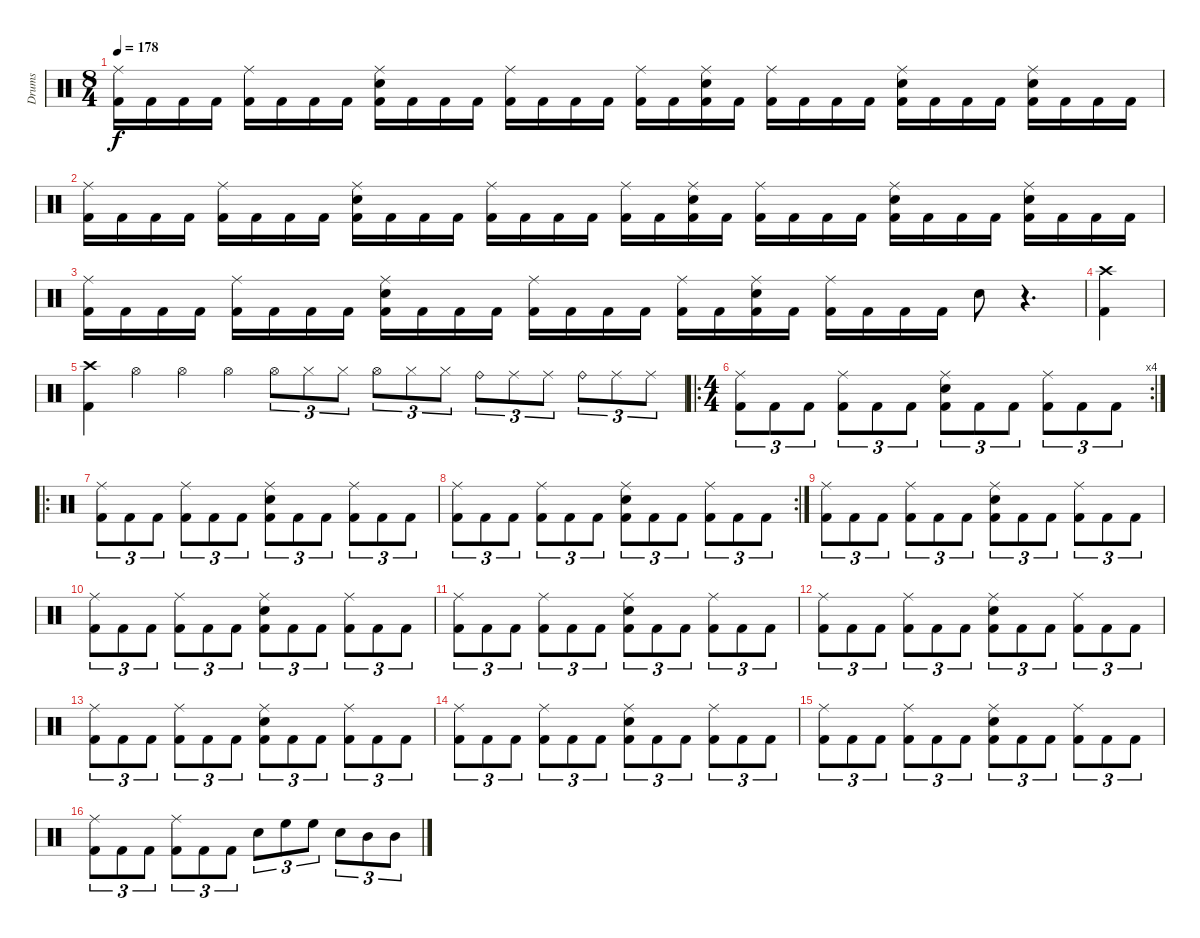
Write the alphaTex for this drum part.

\track ("Drums" "Drums") {instrument percussion}
\staff {score}
\articulation defaults
\ts (8 4)
\tempo 178
\clef neutral
\ks c
("Ride (middle)" "Kick (hit) 2").16{dy f} "Kick (hit) 2".16 "Kick (hit) 2".16 "Kick (hit) 2".16 ("Ride (middle)" "Kick (hit) 2").16 "Kick (hit) 2".16 "Kick (hit) 2".16 "Kick (hit) 2".16 ("Ride (middle)" "Snare (hit) 2" "Kick (hit) 2").16 "Kick (hit) 2".16 "Kick (hit) 2".16 "Kick (hit) 2".16 ("Ride (middle)" "Kick (hit) 2").16 "Kick (hit) 2".16 "Kick (hit) 2".16 "Kick (hit) 2".16 ("Ride (middle)" "Kick (hit) 2").16 "Kick (hit) 2".16 ("Ride (middle)" "Snare (hit) 2" "Kick (hit) 2").16 "Kick (hit) 2".16 ("Ride (middle)" "Kick (hit) 2").16 "Kick (hit) 2".16 "Kick (hit) 2".16 "Kick (hit) 2".16 ("Ride (middle)" "Snare (hit) 2" "Kick (hit) 2").16 "Kick (hit) 2".16 "Kick (hit) 2".16 "Kick (hit) 2".16 ("Ride (middle)" "Snare (hit) 2" "Kick (hit) 2").16 "Kick (hit) 2".16 "Kick (hit) 2".16 "Kick (hit) 2".16 |
("Ride (middle)" "Kick (hit) 2").16 "Kick (hit) 2".16 "Kick (hit) 2".16 "Kick (hit) 2".16 ("Ride (middle)" "Kick (hit) 2").16 "Kick (hit) 2".16 "Kick (hit) 2".16 "Kick (hit) 2".16 ("Ride (middle)" "Snare (hit) 2" "Kick (hit) 2").16 "Kick (hit) 2".16 "Kick (hit) 2".16 "Kick (hit) 2".16 ("Ride (middle)" "Kick (hit) 2").16 "Kick (hit) 2".16 "Kick (hit) 2".16 "Kick (hit) 2".16 ("Ride (middle)" "Kick (hit) 2").16 "Kick (hit) 2".16 ("Ride (middle)" "Snare (hit) 2" "Kick (hit) 2").16 "Kick (hit) 2".16 ("Ride (middle)" "Kick (hit) 2").16 "Kick (hit) 2".16 "Kick (hit) 2".16 "Kick (hit) 2".16 ("Ride (middle)" "Snare (hit) 2" "Kick (hit) 2").16 "Kick (hit) 2".16 "Kick (hit) 2".16 "Kick (hit) 2".16 ("Ride (middle)" "Snare (hit) 2" "Kick (hit) 2").16 "Kick (hit) 2".16 "Kick (hit) 2".16 "Kick (hit) 2".16 |
("Ride (middle)" "Kick (hit) 2").16 "Kick (hit) 2".16 "Kick (hit) 2".16 "Kick (hit) 2".16 ("Ride (middle)" "Kick (hit) 2").16 "Kick (hit) 2".16 "Kick (hit) 2".16 "Kick (hit) 2".16 ("Ride (middle)" "Snare (hit) 2" "Kick (hit) 2").16 "Kick (hit) 2".16 "Kick (hit) 2".16 "Kick (hit) 2".16 ("Ride (middle)" "Kick (hit) 2").16 "Kick (hit) 2".16 "Kick (hit) 2".16 "Kick (hit) 2".16 ("Ride (middle)" "Kick (hit) 2").16 "Kick (hit) 2".16 ("Ride (middle)" "Snare (hit) 2" "Kick (hit) 2").16 "Kick (hit) 2".16 ("Ride (middle)" "Kick (hit) 2").16 "Kick (hit) 2".16 "Kick (hit) 2".16 "Kick (hit) 2".16 "Snare (hit) 2".8 r.4{d} |
("Crash high (hit)" "Kick (hit) 2").4 |
("Crash high (hit)" "Kick (hit) 2").4 "Hi-Hat (open)".4 "Hi-Hat (open)".4 "Hi-Hat (open)".4 "Hi-Hat (open)".8{tu (3 2)} "Hi-Hat (closed)".8{tu (3 2)} "Hi-Hat (closed)".8{tu (3 2)} "Hi-Hat (open)".8{tu (3 2)} "Hi-Hat (closed)".8{tu (3 2)} "Hi-Hat (closed)".8{tu (3 2)} "Ride (bell)".8{tu (3 2)} "Ride (middle)".8{tu (3 2)} "Ride (middle)".8{tu (3 2)} "Ride (bell)".8{tu (3 2)} "Ride (middle)".8{tu (3 2)} "Ride (middle)".8{tu (3 2)} |
\ro
\rc 4
\ts (4 4)
("Ride (middle)" "Kick (hit) 2").8{tu (3 2)} "Kick (hit) 2".8{tu (3 2)} "Kick (hit) 2".8{tu (3 2)} ("Ride (middle)" "Kick (hit) 2").8{tu (3 2)} "Kick (hit) 2".8{tu (3 2)} "Kick (hit) 2".8{tu (3 2)} ("Ride (middle)" "Snare (hit) 2" "Kick (hit) 2").8{tu (3 2)} "Kick (hit) 2".8{tu (3 2)} "Kick (hit) 2".8{tu (3 2)} ("Ride (middle)" "Kick (hit) 2").8{tu (3 2)} "Kick (hit) 2".8{tu (3 2)} "Kick (hit) 2".8{tu (3 2)} |
\ro
("Ride (middle)" "Kick (hit) 2").8{tu (3 2)} "Kick (hit) 2".8{tu (3 2)} "Kick (hit) 2".8{tu (3 2)} ("Ride (middle)" "Kick (hit) 2").8{tu (3 2)} "Kick (hit) 2".8{tu (3 2)} "Kick (hit) 2".8{tu (3 2)} ("Ride (middle)" "Snare (hit) 2" "Kick (hit) 2").8{tu (3 2)} "Kick (hit) 2".8{tu (3 2)} "Kick (hit) 2".8{tu (3 2)} ("Ride (middle)" "Kick (hit) 2").8{tu (3 2)} "Kick (hit) 2".8{tu (3 2)} "Kick (hit) 2".8{tu (3 2)} |
\rc 2
("Ride (middle)" "Kick (hit) 2").8{tu (3 2)} "Kick (hit) 2".8{tu (3 2)} "Kick (hit) 2".8{tu (3 2)} ("Ride (middle)" "Kick (hit) 2").8{tu (3 2)} "Kick (hit) 2".8{tu (3 2)} "Kick (hit) 2".8{tu (3 2)} ("Ride (middle)" "Snare (hit) 2" "Kick (hit) 2").8{tu (3 2)} "Kick (hit) 2".8{tu (3 2)} "Kick (hit) 2".8{tu (3 2)} ("Ride (middle)" "Kick (hit) 2").8{tu (3 2)} "Kick (hit) 2".8{tu (3 2)} "Kick (hit) 2".8{tu (3 2)} |
("Ride (middle)" "Kick (hit) 2").8{tu (3 2)} "Kick (hit) 2".8{tu (3 2)} "Kick (hit) 2".8{tu (3 2)} ("Ride (middle)" "Kick (hit) 2").8{tu (3 2)} "Kick (hit) 2".8{tu (3 2)} "Kick (hit) 2".8{tu (3 2)} ("Ride (middle)" "Snare (hit) 2" "Kick (hit) 2").8{tu (3 2)} "Kick (hit) 2".8{tu (3 2)} "Kick (hit) 2".8{tu (3 2)} ("Ride (middle)" "Kick (hit) 2").8{tu (3 2)} "Kick (hit) 2".8{tu (3 2)} "Kick (hit) 2".8{tu (3 2)} |
("Ride (middle)" "Kick (hit) 2").8{tu (3 2)} "Kick (hit) 2".8{tu (3 2)} "Kick (hit) 2".8{tu (3 2)} ("Ride (middle)" "Kick (hit) 2").8{tu (3 2)} "Kick (hit) 2".8{tu (3 2)} "Kick (hit) 2".8{tu (3 2)} ("Ride (middle)" "Snare (hit) 2" "Kick (hit) 2").8{tu (3 2)} "Kick (hit) 2".8{tu (3 2)} "Kick (hit) 2".8{tu (3 2)} ("Ride (middle)" "Kick (hit) 2").8{tu (3 2)} "Kick (hit) 2".8{tu (3 2)} "Kick (hit) 2".8{tu (3 2)} |
("Ride (middle)" "Kick (hit) 2").8{tu (3 2)} "Kick (hit) 2".8{tu (3 2)} "Kick (hit) 2".8{tu (3 2)} ("Ride (middle)" "Kick (hit) 2").8{tu (3 2)} "Kick (hit) 2".8{tu (3 2)} "Kick (hit) 2".8{tu (3 2)} ("Ride (middle)" "Snare (hit) 2" "Kick (hit) 2").8{tu (3 2)} "Kick (hit) 2".8{tu (3 2)} "Kick (hit) 2".8{tu (3 2)} ("Ride (middle)" "Kick (hit) 2").8{tu (3 2)} "Kick (hit) 2".8{tu (3 2)} "Kick (hit) 2".8{tu (3 2)} |
("Ride (middle)" "Kick (hit) 2").8{tu (3 2)} "Kick (hit) 2".8{tu (3 2)} "Kick (hit) 2".8{tu (3 2)} ("Ride (middle)" "Kick (hit) 2").8{tu (3 2)} "Kick (hit) 2".8{tu (3 2)} "Kick (hit) 2".8{tu (3 2)} ("Ride (middle)" "Snare (hit) 2" "Kick (hit) 2").8{tu (3 2)} "Kick (hit) 2".8{tu (3 2)} "Kick (hit) 2".8{tu (3 2)} ("Ride (middle)" "Kick (hit) 2").8{tu (3 2)} "Kick (hit) 2".8{tu (3 2)} "Kick (hit) 2".8{tu (3 2)} |
("Ride (middle)" "Kick (hit) 2").8{tu (3 2)} "Kick (hit) 2".8{tu (3 2)} "Kick (hit) 2".8{tu (3 2)} ("Ride (middle)" "Kick (hit) 2").8{tu (3 2)} "Kick (hit) 2".8{tu (3 2)} "Kick (hit) 2".8{tu (3 2)} ("Ride (middle)" "Snare (hit) 2" "Kick (hit) 2").8{tu (3 2)} "Kick (hit) 2".8{tu (3 2)} "Kick (hit) 2".8{tu (3 2)} ("Ride (middle)" "Kick (hit) 2").8{tu (3 2)} "Kick (hit) 2".8{tu (3 2)} "Kick (hit) 2".8{tu (3 2)} |
("Ride (middle)" "Kick (hit) 2").8{tu (3 2)} "Kick (hit) 2".8{tu (3 2)} "Kick (hit) 2".8{tu (3 2)} ("Ride (middle)" "Kick (hit) 2").8{tu (3 2)} "Kick (hit) 2".8{tu (3 2)} "Kick (hit) 2".8{tu (3 2)} ("Ride (middle)" "Snare (hit) 2" "Kick (hit) 2").8{tu (3 2)} "Kick (hit) 2".8{tu (3 2)} "Kick (hit) 2".8{tu (3 2)} ("Ride (middle)" "Kick (hit) 2").8{tu (3 2)} "Kick (hit) 2".8{tu (3 2)} "Kick (hit) 2".8{tu (3 2)} |
("Ride (middle)" "Kick (hit) 2").8{tu (3 2)} "Kick (hit) 2".8{tu (3 2)} "Kick (hit) 2".8{tu (3 2)} ("Ride (middle)" "Kick (hit) 2").8{tu (3 2)} "Kick (hit) 2".8{tu (3 2)} "Kick (hit) 2".8{tu (3 2)} ("Ride (middle)" "Snare (hit) 2" "Kick (hit) 2").8{tu (3 2)} "Kick (hit) 2".8{tu (3 2)} "Kick (hit) 2".8{tu (3 2)} ("Ride (middle)" "Kick (hit) 2").8{tu (3 2)} "Kick (hit) 2".8{tu (3 2)} "Kick (hit) 2".8{tu (3 2)} |
("Ride (middle)" "Kick (hit) 2").8{tu (3 2)} "Kick (hit) 2".8{tu (3 2)} "Kick (hit) 2".8{tu (3 2)} ("Ride (middle)" "Kick (hit) 2").8{tu (3 2)} "Kick (hit) 2".8{tu (3 2)} "Kick (hit) 2".8{tu (3 2)} "Snare (hit) 2".8{tu (3 2)} "High Floor Tom (hit)".8{tu (3 2)} "High Floor Tom (hit)".8{tu (3 2)} "Snare (hit) 2".8{tu (3 2)} "Mid Tom (hit)".8{tu (3 2)} "Mid Tom (hit)".8{tu (3 2)}
